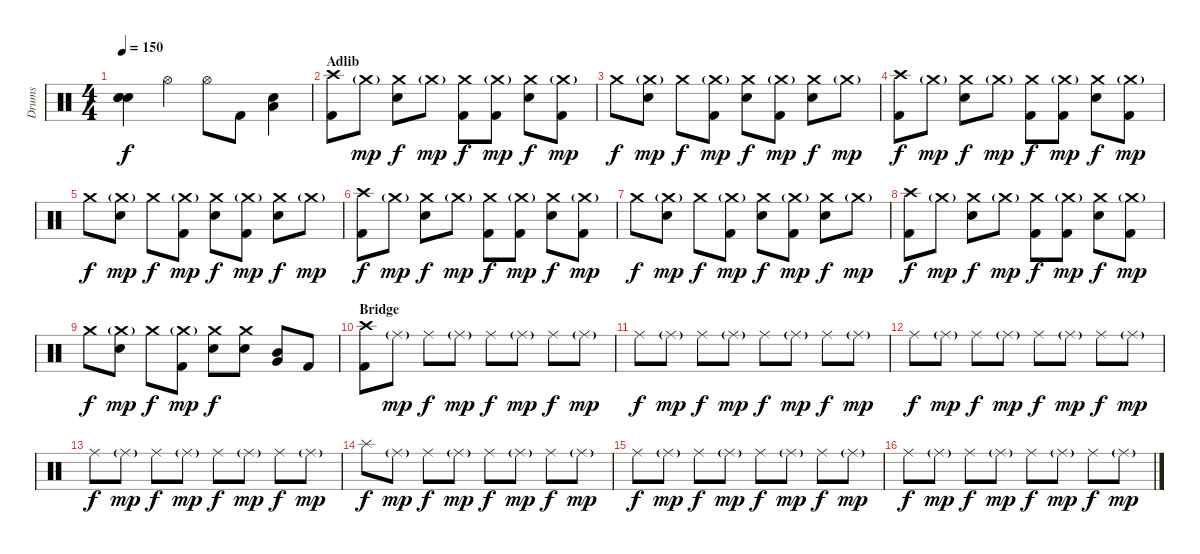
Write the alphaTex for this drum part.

\track ("Drums" "Drums") {instrument percussion}
\staff {score}
\articulation defaults
\ts (4 4)
\tempo 150
\clef neutral
\ks c
("Snare (hit)"{t} "Snare (hit)"{t} "Snare (hit)"{t}).4{dy f} "Hi-Hat (open)".4 "Hi-Hat (open)".8 "Kick (hit) 2".8 ("Low Floor Tom (hit)" "Electric Snare (hit)").4 |
\section ("" "Adlib")
("Crash high (hit)" "Kick (hit) 2").8 "Crash medium (hit)"{g}.8{dy mp} ("Crash medium (hit)" "Electric Snare (hit)").8{dy f} "Crash medium (hit)"{g}.8{dy mp} ("Crash medium (hit)" "Kick (hit) 2").8{dy f} ("Crash medium (hit)"{g} "Kick (hit) 2").8{dy mp} ("Crash medium (hit)" "Electric Snare (hit)").8{dy f} ("Crash medium (hit)"{g} "Kick (hit) 2").8{dy mp} |
"Crash medium (hit)".8{dy f} ("Crash medium (hit)"{g} "Electric Snare (hit)").8{dy mp} "Crash medium (hit)".8{dy f} ("Crash medium (hit)"{g} "Kick (hit) 2").8{dy mp} ("Crash medium (hit)" "Electric Snare (hit)").8{dy f} ("Crash medium (hit)"{g} "Kick (hit) 2").8{dy mp} ("Crash medium (hit)" "Electric Snare (hit)").8{dy f} "Crash medium (hit)"{g}.8{dy mp} |
("Crash high (hit)" "Kick (hit) 2").8{dy f} "Crash medium (hit)"{g}.8{dy mp} ("Crash medium (hit)" "Electric Snare (hit)").8{dy f} "Crash medium (hit)"{g}.8{dy mp} ("Crash medium (hit)" "Kick (hit) 2").8{dy f} ("Crash medium (hit)"{g} "Kick (hit) 2").8{dy mp} ("Crash medium (hit)" "Electric Snare (hit)").8{dy f} ("Crash medium (hit)"{g} "Kick (hit) 2").8{dy mp} |
"Crash medium (hit)".8{dy f} ("Crash medium (hit)"{g} "Electric Snare (hit)").8{dy mp} "Crash medium (hit)".8{dy f} ("Crash medium (hit)"{g} "Kick (hit) 2").8{dy mp} ("Crash medium (hit)" "Electric Snare (hit)").8{dy f} ("Crash medium (hit)"{g} "Kick (hit) 2").8{dy mp} ("Crash medium (hit)" "Electric Snare (hit)").8{dy f} "Crash medium (hit)"{g}.8{dy mp} |
("Crash high (hit)" "Kick (hit) 2").8{dy f} "Crash medium (hit)"{g}.8{dy mp} ("Crash medium (hit)" "Electric Snare (hit)").8{dy f} "Crash medium (hit)"{g}.8{dy mp} ("Crash medium (hit)" "Kick (hit) 2").8{dy f} ("Crash medium (hit)"{g} "Kick (hit) 2").8{dy mp} ("Crash medium (hit)" "Electric Snare (hit)").8{dy f} ("Crash medium (hit)"{g} "Kick (hit) 2").8{dy mp} |
"Crash medium (hit)".8{dy f} ("Crash medium (hit)"{g} "Electric Snare (hit)").8{dy mp} "Crash medium (hit)".8{dy f} ("Crash medium (hit)"{g} "Kick (hit) 2").8{dy mp} ("Crash medium (hit)" "Electric Snare (hit)").8{dy f} ("Crash medium (hit)"{g} "Kick (hit) 2").8{dy mp} ("Crash medium (hit)" "Electric Snare (hit)").8{dy f} "Crash medium (hit)"{g}.8{dy mp} |
("Crash high (hit)" "Kick (hit) 2").8{dy f} "Crash medium (hit)"{g}.8{dy mp} ("Crash medium (hit)" "Electric Snare (hit)").8{dy f} "Crash medium (hit)"{g}.8{dy mp} ("Crash medium (hit)" "Kick (hit) 2").8{dy f} ("Crash medium (hit)"{g} "Kick (hit) 2").8{dy mp} ("Crash medium (hit)" "Electric Snare (hit)").8{dy f} ("Crash medium (hit)"{g} "Kick (hit) 2").8{dy mp} |
"Crash medium (hit)".8{dy f} ("Crash medium (hit)"{g} "Electric Snare (hit)").8{dy mp} "Crash medium (hit)".8{dy f} ("Crash medium (hit)"{g} "Kick (hit) 2").8{dy mp} ("Crash medium (hit)" "Electric Snare (hit)").8{dy f} ("Crash medium (hit)" "Electric Snare (hit)").8 ("Mid Tom (hit)" "Very Low Tom (hit)").8 "Kick (hit) 2".8 |
\section ("" "Bridge")
("Crash high (hit)" "Kick (hit) 2").8 "Ride (middle)"{g}.8{dy mp} "Ride (middle)".8{dy f} "Ride (middle)"{g}.8{dy mp} "Ride (middle)".8{dy f} "Ride (middle)"{g}.8{dy mp} "Ride (middle)".8{dy f} "Ride (middle)"{g}.8{dy mp} |
"Ride (middle)".8{dy f} "Ride (middle)"{g}.8{dy mp} "Ride (middle)".8{dy f} "Ride (middle)"{g}.8{dy mp} "Ride (middle)".8{dy f} "Ride (middle)"{g}.8{dy mp} "Ride (middle)".8{dy f} "Ride (middle)"{g}.8{dy mp} |
"Ride (middle)".8{dy f} "Ride (middle)"{g}.8{dy mp} "Ride (middle)".8{dy f} "Ride (middle)"{g}.8{dy mp} "Ride (middle)".8{dy f} "Ride (middle)"{g}.8{dy mp} "Ride (middle)".8{dy f} "Ride (middle)"{g}.8{dy mp} |
"Ride (middle)".8{dy f} "Ride (middle)"{g}.8{dy mp} "Ride (middle)".8{dy f} "Ride (middle)"{g}.8{dy mp} "Ride (middle)".8{dy f} "Ride (middle)"{g}.8{dy mp} "Ride (middle)".8{dy f} "Ride (middle)"{g}.8{dy mp} |
"Splash (hit)".8{dy f} "Ride (middle)"{g}.8{dy mp} "Ride (middle)".8{dy f} "Ride (middle)"{g}.8{dy mp} "Ride (middle)".8{dy f} "Ride (middle)"{g}.8{dy mp} "Ride (middle)".8{dy f} "Ride (middle)"{g}.8{dy mp} |
"Ride (middle)".8{dy f} "Ride (middle)"{g}.8{dy mp} "Ride (middle)".8{dy f} "Ride (middle)"{g}.8{dy mp} "Ride (middle)".8{dy f} "Ride (middle)"{g}.8{dy mp} "Ride (middle)".8{dy f} "Ride (middle)"{g}.8{dy mp} |
"Ride (middle)".8{dy f} "Ride (middle)"{g}.8{dy mp} "Ride (middle)".8{dy f} "Ride (middle)"{g}.8{dy mp} "Ride (middle)".8{dy f} "Ride (middle)"{g}.8{dy mp} "Ride (middle)".8{dy f} "Ride (middle)"{g}.8{dy mp}
